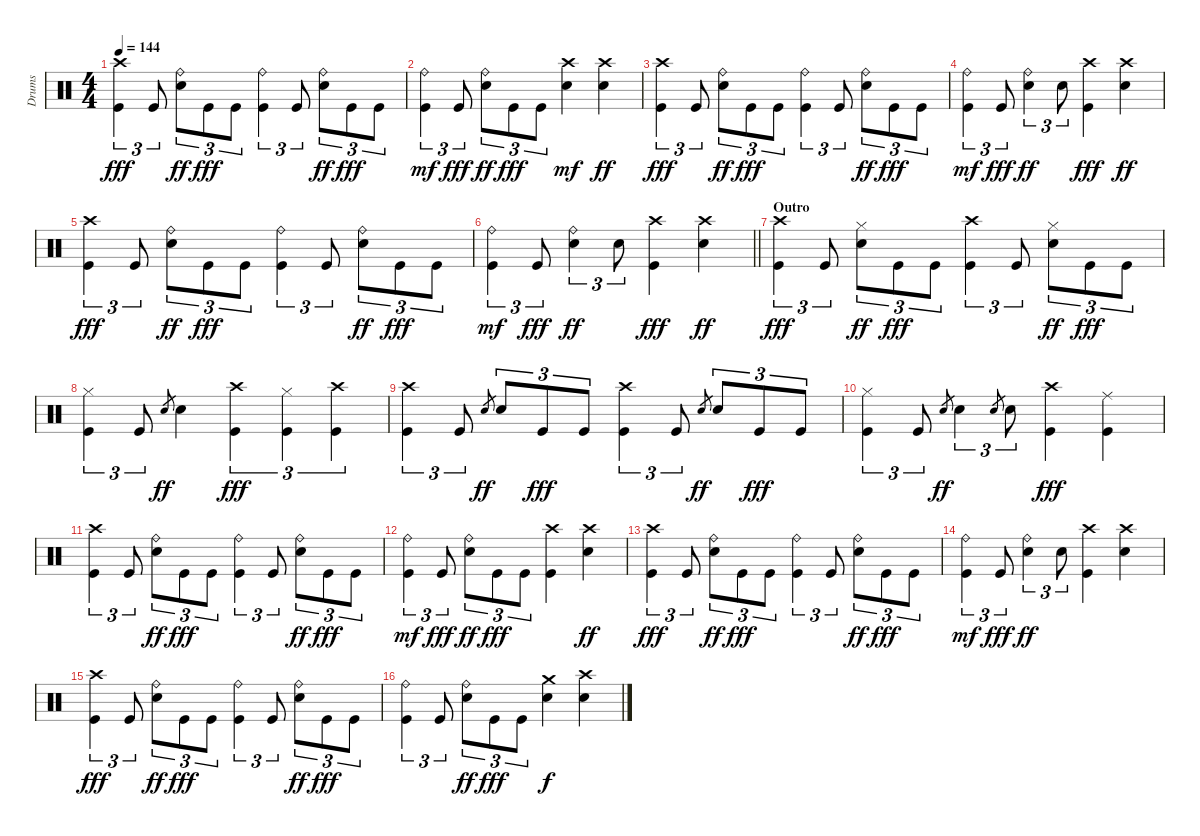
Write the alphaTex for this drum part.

\track ("Drums" "Drums") {instrument percussion}
\staff {score}
\articulation defaults
\ts (4 4)
\tempo 144
\clef neutral
\ks c
("Kick (hit)" "Crash high (hit)").4{tu (3 2) dy fff} "Kick (hit)".8{tu (3 2)} ("Ride (bell)" "Snare (hit) 2").8{tu (3 2) dy ff} "Kick (hit)".8{tu (3 2) dy fff} "Kick (hit)".8{tu (3 2)} ("Ride (bell)" "Kick (hit)").4{tu (3 2)} "Kick (hit)".8{tu (3 2)} ("Ride (bell)" "Snare (hit) 2").8{tu (3 2) dy ff} "Kick (hit)".8{tu (3 2) dy fff} "Kick (hit)".8{tu (3 2)} |
("Kick (hit)" "Ride (bell)").4{tu (3 2) dy mf} "Kick (hit)".8{tu (3 2) dy fff} ("Ride (bell)" "Snare (hit) 2").8{tu (3 2) dy ff} "Kick (hit)".8{tu (3 2) dy fff} "Kick (hit)".8{tu (3 2)} ("Crash high (hit)" "Snare (hit) 2").4{dy mf} ("Snare (hit) 2" "Crash high (hit)").4{dy ff} |
("Kick (hit)" "Crash high (hit)").4{tu (3 2) dy fff} "Kick (hit)".8{tu (3 2)} ("Ride (bell)" "Snare (hit) 2").8{tu (3 2) dy ff} "Kick (hit)".8{tu (3 2) dy fff} "Kick (hit)".8{tu (3 2)} ("Ride (bell)" "Kick (hit)").4{tu (3 2)} "Kick (hit)".8{tu (3 2)} ("Ride (bell)" "Snare (hit) 2").8{tu (3 2) dy ff} "Kick (hit)".8{tu (3 2) dy fff} "Kick (hit)".8{tu (3 2)} |
("Kick (hit)" "Ride (bell)").4{tu (3 2) dy mf} "Kick (hit)".8{tu (3 2) dy fff} ("Ride (bell)" "Snare (hit) 2").4{tu (3 2) dy ff} "Snare (hit) 2".8{tu (3 2)} ("Crash high (hit)" "Kick (hit)").4{dy fff} ("Snare (hit) 2" "Crash high (hit)").4{dy ff} |
("Kick (hit)" "Crash high (hit)").4{tu (3 2) dy fff} "Kick (hit)".8{tu (3 2)} ("Ride (bell)" "Snare (hit) 2").8{tu (3 2) dy ff} "Kick (hit)".8{tu (3 2) dy fff} "Kick (hit)".8{tu (3 2)} ("Ride (bell)" "Kick (hit)").4{tu (3 2)} "Kick (hit)".8{tu (3 2)} ("Ride (bell)" "Snare (hit) 2").8{tu (3 2) dy ff} "Kick (hit)".8{tu (3 2) dy fff} "Kick (hit)".8{tu (3 2)} |
\barLineRight lightlight
("Kick (hit)" "Ride (bell)").4{tu (3 2) dy mf} "Kick (hit)".8{tu (3 2) dy fff} ("Ride (bell)" "Snare (hit) 2").4{tu (3 2) dy ff} "Snare (hit) 2".8{tu (3 2)} ("Crash high (hit)" "Kick (hit)").4{dy fff} ("Snare (hit) 2" "Crash high (hit)").4{dy ff} |
\section ("" "Outro")
("Kick (hit)" "Crash high (hit)").4{tu (3 2) dy fff} "Kick (hit)".8{tu (3 2)} ("Hi-Hat (closed)" "Snare (hit) 2").8{tu (3 2) dy ff} "Kick (hit)".8{tu (3 2) dy fff} "Kick (hit)".8{tu (3 2)} ("Crash high (hit)" "Kick (hit)").4{tu (3 2)} "Kick (hit)".8{tu (3 2)} ("Hi-Hat (closed)" "Snare (hit) 2").8{tu (3 2) dy ff} "Kick (hit)".8{tu (3 2) dy fff} "Kick (hit)".8{tu (3 2)} |
("Kick (hit)" "Hi-Hat (closed)").4{tu (3 2)} "Kick (hit)".8{tu (3 2)} "Snare (hit) 2".8{gr dy ff} "Snare (hit) 2".4 ("Crash high (hit)" "Kick (hit)").4{tu (3 2) dy fff} ("Kick (hit)" "Hi-Hat (closed)").4{tu (3 2)} ("Crash high (hit)" "Kick (hit)").4{tu (3 2)} |
("Kick (hit)" "Crash high (hit)").4{tu (3 2)} "Kick (hit)".8{tu (3 2)} "Snare (hit) 2".8{gr dy ff} "Snare (hit) 2".8{tu (3 2)} "Kick (hit)".8{tu (3 2) dy fff} "Kick (hit)".8{tu (3 2)} ("Crash high (hit)" "Kick (hit)").4{tu (3 2)} "Kick (hit)".8{tu (3 2)} "Snare (hit) 2".8{gr dy ff} "Snare (hit) 2".8{tu (3 2)} "Kick (hit)".8{tu (3 2) dy fff} "Kick (hit)".8{tu (3 2)} |
("Kick (hit)" "Hi-Hat (closed)").4{tu (3 2)} "Kick (hit)".8{tu (3 2)} "Snare (hit) 2".8{gr dy ff} "Snare (hit) 2".4{tu (3 2)} "Snare (hit) 2".8{gr} "Snare (hit) 2".8{tu (3 2)} ("Kick (hit)" "Crash high (hit)").4{dy fff} ("Ride (middle)" "Kick (hit)").4 |
("Kick (hit)" "Crash high (hit)").4{tu (3 2)} "Kick (hit)".8{tu (3 2)} ("Ride (bell)" "Snare (hit) 2").8{tu (3 2) dy ff} "Kick (hit)".8{tu (3 2) dy fff} "Kick (hit)".8{tu (3 2)} ("Ride (bell)" "Kick (hit)").4{tu (3 2)} "Kick (hit)".8{tu (3 2)} ("Ride (bell)" "Snare (hit) 2").8{tu (3 2) dy ff} "Kick (hit)".8{tu (3 2) dy fff} "Kick (hit)".8{tu (3 2)} |
("Kick (hit)" "Ride (bell)").4{tu (3 2) dy mf} "Kick (hit)".8{tu (3 2) dy fff} ("Ride (bell)" "Snare (hit) 2").8{tu (3 2) dy ff} "Kick (hit)".8{tu (3 2) dy fff} "Kick (hit)".8{tu (3 2)} ("Crash high (hit)" "Kick (hit)").4 ("Snare (hit) 2" "Crash high (hit)").4{dy ff} |
("Kick (hit)" "Crash high (hit)").4{tu (3 2) dy fff} "Kick (hit)".8{tu (3 2)} ("Ride (bell)" "Snare (hit) 2").8{tu (3 2) dy ff} "Kick (hit)".8{tu (3 2) dy fff} "Kick (hit)".8{tu (3 2)} ("Ride (bell)" "Kick (hit)").4{tu (3 2)} "Kick (hit)".8{tu (3 2)} ("Ride (bell)" "Snare (hit) 2").8{tu (3 2) dy ff} "Kick (hit)".8{tu (3 2) dy fff} "Kick (hit)".8{tu (3 2)} |
("Kick (hit)" "Ride (bell)").4{tu (3 2) dy mf} "Kick (hit)".8{tu (3 2) dy fff} ("Ride (bell)" "Snare (hit) 2").4{tu (3 2) dy ff} "Snare (hit) 2".8{tu (3 2)} ("Crash high (hit)" "Kick (hit)").4 ("Snare (hit) 2" "Crash high (hit)").4 |
("Kick (hit)" "Crash high (hit)").4{tu (3 2) dy fff} "Kick (hit)".8{tu (3 2)} ("Ride (bell)" "Snare (hit) 2").8{tu (3 2) dy ff} "Kick (hit)".8{tu (3 2) dy fff} "Kick (hit)".8{tu (3 2)} ("Ride (bell)" "Kick (hit)").4{tu (3 2)} "Kick (hit)".8{tu (3 2)} ("Ride (bell)" "Snare (hit) 2").8{tu (3 2) dy ff} "Kick (hit)".8{tu (3 2) dy fff} "Kick (hit)".8{tu (3 2)} |
("Kick (hit)" "Ride (bell)").4{tu (3 2)} "Kick (hit)".8{tu (3 2)} ("Ride (bell)" "Snare (hit) 2").8{tu (3 2) dy ff} "Kick (hit)".8{tu (3 2) dy fff} "Kick (hit)".8{tu (3 2)} ("Snare (hit) 2" "Crash medium (hit)").4{dy f} ("Snare (hit) 2" "Crash high (hit)").4
